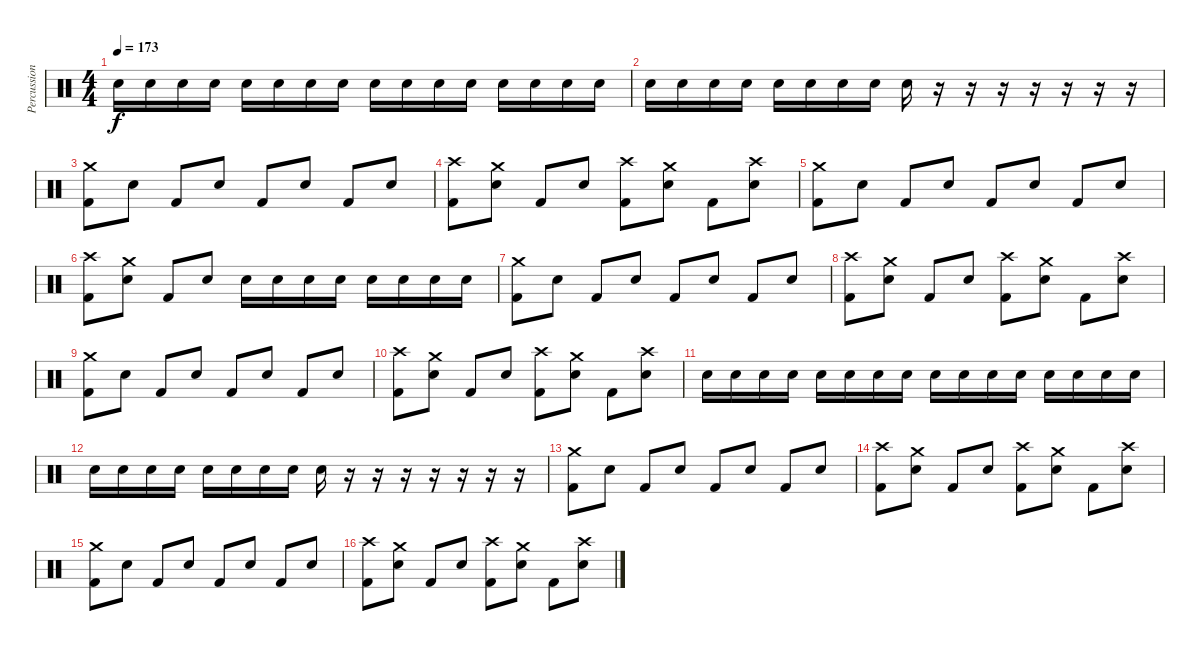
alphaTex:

\track ("Percussions" "Percussion") {instrument percussion}
\staff {score}
\articulation defaults
\ts (4 4)
\tempo 173
\clef neutral
\ks c "Electric Snare (hit)".16{dy f} "Electric Snare (hit)".16 "Electric Snare (hit)".16 "Electric Snare (hit)".16 "Electric Snare (hit)".16 "Electric Snare (hit)".16 "Electric Snare (hit)".16 "Electric Snare (hit)".16 "Electric Snare (hit)".16 "Electric Snare (hit)".16 "Electric Snare (hit)".16 "Electric Snare (hit)".16 "Electric Snare (hit)".16 "Electric Snare (hit)".16 "Electric Snare (hit)".16 "Electric Snare (hit)".16
|
"Electric Snare (hit)".16 "Electric Snare (hit)".16 "Electric Snare (hit)".16 "Electric Snare (hit)".16 "Electric Snare (hit)".16 "Electric Snare (hit)".16 "Electric Snare (hit)".16 "Electric Snare (hit)".16 "Electric Snare (hit)".16 r.16 r.16 r.16 r.16 r.16 r.16 r.16 |
("Kick (hit) 2" "Crash medium (hit)").8 "Electric Snare (hit)".8 "Kick (hit) 2".8 "Electric Snare (hit)".8 "Kick (hit) 2".8 "Electric Snare (hit)".8 "Kick (hit) 2".8 "Electric Snare (hit)".8 |
("Kick (hit) 2" "Crash high (hit)").8 ("Electric Snare (hit)" "Crash medium (hit)").8 "Kick (hit) 2".8 "Electric Snare (hit)".8 ("Kick (hit) 2" "Crash high (hit)").8 ("Electric Snare (hit)" "Crash medium (hit)").8 "Kick (hit) 2".8 ("Electric Snare (hit)" "Crash high (hit)").8 |
("Kick (hit) 2" "Crash medium (hit)").8 "Electric Snare (hit)".8 "Kick (hit) 2".8 "Electric Snare (hit)".8 "Kick (hit) 2".8 "Electric Snare (hit)".8 "Kick (hit) 2".8 "Electric Snare (hit)".8 |
("Kick (hit) 2" "Crash high (hit)").8 ("Electric Snare (hit)" "Crash medium (hit)").8 "Kick (hit) 2".8 "Electric Snare (hit)".8 "Electric Snare (hit)".16 "Electric Snare (hit)".16 "Electric Snare (hit)".16 "Electric Snare (hit)".16 "Electric Snare (hit)".16 "Electric Snare (hit)".16 "Electric Snare (hit)".16 "Electric Snare (hit)".16 |
("Kick (hit) 2" "Crash medium (hit)").8 "Electric Snare (hit)".8 "Kick (hit) 2".8 "Electric Snare (hit)".8 "Kick (hit) 2".8 "Electric Snare (hit)".8 "Kick (hit) 2".8 "Electric Snare (hit)".8 |
("Kick (hit) 2" "Crash high (hit)").8 ("Electric Snare (hit)" "Crash medium (hit)").8 "Kick (hit) 2".8 "Electric Snare (hit)".8 ("Kick (hit) 2" "Crash high (hit)").8 ("Electric Snare (hit)" "Crash medium (hit)").8 "Kick (hit) 2".8 ("Electric Snare (hit)" "Crash high (hit)").8 |
("Kick (hit) 2" "Crash medium (hit)").8 "Electric Snare (hit)".8 "Kick (hit) 2".8 "Electric Snare (hit)".8 "Kick (hit) 2".8 "Electric Snare (hit)".8 "Kick (hit) 2".8 "Electric Snare (hit)".8 |
("Kick (hit) 2" "Crash high (hit)").8 ("Electric Snare (hit)" "Crash medium (hit)").8 "Kick (hit) 2".8 "Electric Snare (hit)".8 ("Kick (hit) 2" "Crash high (hit)").8 ("Electric Snare (hit)" "Crash medium (hit)").8 "Kick (hit) 2".8 ("Electric Snare (hit)" "Crash high (hit)").8 |
"Electric Snare (hit)".16 "Electric Snare (hit)".16 "Electric Snare (hit)".16 "Electric Snare (hit)".16 "Electric Snare (hit)".16 "Electric Snare (hit)".16 "Electric Snare (hit)".16 "Electric Snare (hit)".16 "Electric Snare (hit)".16 "Electric Snare (hit)".16 "Electric Snare (hit)".16 "Electric Snare (hit)".16 "Electric Snare (hit)".16 "Electric Snare (hit)".16 "Electric Snare (hit)".16 "Electric Snare (hit)".16 |
"Electric Snare (hit)".16 "Electric Snare (hit)".16 "Electric Snare (hit)".16 "Electric Snare (hit)".16 "Electric Snare (hit)".16 "Electric Snare (hit)".16 "Electric Snare (hit)".16 "Electric Snare (hit)".16 "Electric Snare (hit)".16 r.16 r.16 r.16 r.16 r.16 r.16 r.16 |
("Kick (hit) 2" "Crash medium (hit)").8 "Electric Snare (hit)".8 "Kick (hit) 2".8 "Electric Snare (hit)".8 "Kick (hit) 2".8 "Electric Snare (hit)".8 "Kick (hit) 2".8 "Electric Snare (hit)".8 |
("Kick (hit) 2" "Crash high (hit)").8 ("Electric Snare (hit)" "Crash medium (hit)").8 "Kick (hit) 2".8 "Electric Snare (hit)".8 ("Kick (hit) 2" "Crash high (hit)").8 ("Electric Snare (hit)" "Crash medium (hit)").8 "Kick (hit) 2".8 ("Electric Snare (hit)" "Crash high (hit)").8 |
("Kick (hit) 2" "Crash medium (hit)").8 "Electric Snare (hit)".8 "Kick (hit) 2".8 "Electric Snare (hit)".8 "Kick (hit) 2".8 "Electric Snare (hit)".8 "Kick (hit) 2".8 "Electric Snare (hit)".8 |
("Kick (hit) 2" "Crash high (hit)").8 ("Electric Snare (hit)" "Crash medium (hit)").8 "Kick (hit) 2".8 "Electric Snare (hit)".8 ("Kick (hit) 2" "Crash high (hit)").8 ("Electric Snare (hit)" "Crash medium (hit)").8 "Kick (hit) 2".8 ("Electric Snare (hit)" "Crash high (hit)").8
